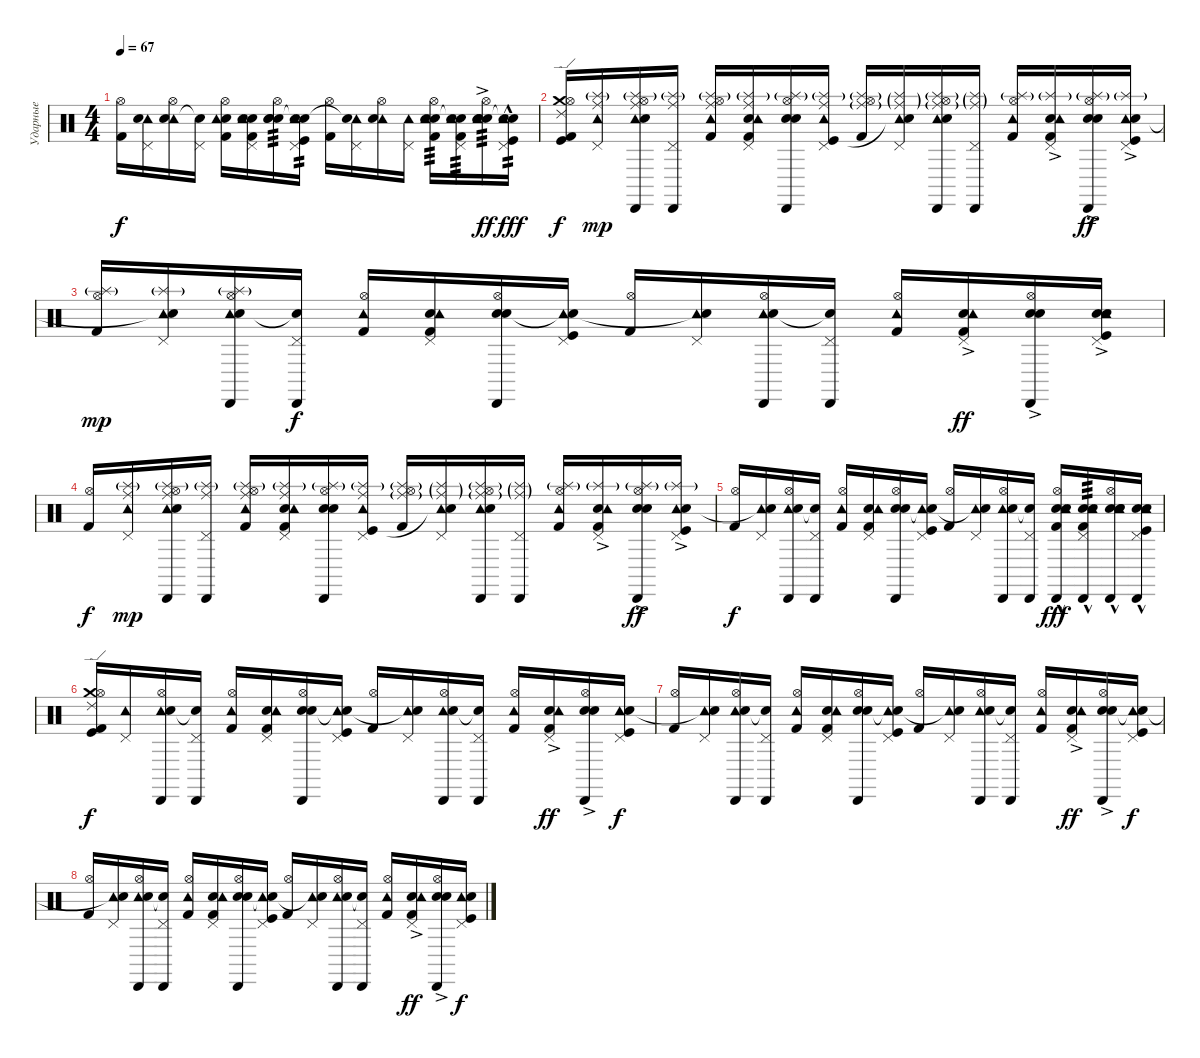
\track ("Ударные" "Ударные") {instrument percussion}
\staff {score}
\articulation defaults
\ts (4 4)
\tempo 67
\clef neutral
\ks c
("Hi-Hat (open)" "Kick (hit) 2").16{dy f} ("Pedal Hi-Hat (hit)" "Tambourine (hit)" "Snare (hit)"{t}).16 ("Hi-Hat (open)" "Tambourine (hit)" "Snare (hit) 2").16 ("Pedal Hi-Hat (hit)" "Snare (hit) 2"{t}).16 ("Hi-Hat (open)" "Snare (hit) 2" "Tambourine (hit)" "Kick (hit) 2").16 ("Pedal Hi-Hat (hit)" "Hand Clap (hit)" "Snare (hit) 2" "Tambourine (hit)" "Kick (hit) 2").16 ("Hi-Hat (open)" "Hand Clap (hit)" "Snare (hit) 2" "Snare (hit) 2").16{tp 3} ("Pedal Hi-Hat (hit)" "Snare (hit) 2" "Tambourine (hit)" "Snare (hit) 2"{t} "Kick (hit)").16{tp 2} ("Hi-Hat (open)" "Kick (hit) 2").16 ("Pedal Hi-Hat (hit)" "Tambourine (hit)" "Snare (hit)"{t}).16 ("Hi-Hat (open)" "Tambourine (hit)" "Snare (hit) 2").16 ("Pedal Hi-Hat (hit)" "Tambourine (hit)").16 ("Hi-Hat (open)" "Electric Snare (hit)" "Hand Clap (hit)" "Tambourine (hit)" "Kick (hit) 2").16{tp 3} ("Pedal Hi-Hat (hit)" "Electric Snare (hit)" "Snare (hit)"{t} "Tambourine (hit)" "Kick (hit) 2").16{tp 3} ("Hi-Hat (open)" "Electric Snare (hit)"{ac} "Hand Clap (hit)" "Snare (hit) 2" "Tambourine (hit)").16{tp 3 dy ff} ("Pedal Hi-Hat (hit)" "Electric Snare (hit)"{hac} "Snare (hit)"{t} "Tambourine (hit)" "Kick (hit)").16{tp 2 dy fff} |
("Crash medium (hit)" "Kick (hit) 2" "Kick (hit)" "Ride (edge) 2" "Hi-Hat (open)").16{dy f} ("Pedal Hi-Hat (hit)" "Tambourine (hit)" "Splash (hit)"{g} "Ride (middle)").16{dy mp} ("Hi-Hat (open)" "Cabasa (hit)" "Tambourine (hit)" "Splash (hit)"{g} "Snare (hit) 2" "Ride (middle)").16 ("Pedal Hi-Hat (hit)" "Cabasa (hit)" "Splash (hit)"{g} "Ride (middle)").16 ("Hi-Hat (open)" "Tambourine (hit)" "Splash (hit)"{g} "Ride (middle)" "Kick (hit) 2").16 ("Pedal Hi-Hat (hit)" "Ride (middle)" "Hand Clap (hit)" "Tambourine (hit)" "Splash (hit)"{g} "Kick (hit) 2").16 ("Hi-Hat (open)" "Cabasa (hit)" "Hand Clap (hit)" "Splash (hit)"{g} "Electric Snare (hit)").16 ("Pedal Hi-Hat (hit)" "Ride (middle)" "Tambourine (hit)" "Splash (hit)"{g} "Kick (hit)").16 ("Hi-Hat (open)" "Ride (middle)"{g} "Splash (hit)"{g} "Kick (hit) 2").16 ("Pedal Hi-Hat (hit)" "Ride (middle)"{g} "Tambourine (hit)" "Splash (hit)"{g} "Snare (hit)"{t}).16 ("Hi-Hat (open)" "Cabasa (hit)" "Splash (hit)"{g} "Tambourine (hit)" "Snare (hit) 2" "Ride (middle)"{g}).16 ("Pedal Hi-Hat (hit)" "Cabasa (hit)" "Splash (hit)"{g} "Ride (middle)"{g}).16 ("Hi-Hat (open)" "Tambourine (hit)" "Splash (hit)"{g} "Kick (hit) 2").16 ("Pedal Hi-Hat (hit)" "Hand Clap (hit)"{ac} "Tambourine (hit)" "Splash (hit)"{g} "Kick (hit) 2").16 ("Hi-Hat (open)" "Cabasa (hit)" "Hand Clap (hit)"{ac} "Splash (hit)"{g} "Electric Snare (hit)"{ac}).16{dy ff} ("Pedal Hi-Hat (hit)" "Splash (hit)"{g} "Tambourine (hit)" "Electric Snare (hit)"{ac} "Kick (hit)").16 |
("Hi-Hat (open)" "Splash (hit)"{g} "Kick (hit) 2").16{dy mp} ("Pedal Hi-Hat (hit)" "Tambourine (hit)" "Splash (hit)"{g} "Snare (hit)"{t}).16 ("Hi-Hat (open)" "Cabasa (hit)" "Tambourine (hit)" "Snare (hit) 2" "Splash (hit)"{g}).16 ("Pedal Hi-Hat (hit)" "Cabasa (hit)" "Snare (hit) 2"{t}).16{dy f} ("Hi-Hat (open)" "Tambourine (hit)" "Kick (hit) 2").16 ("Pedal Hi-Hat (hit)" "Hand Clap (hit)" "Tambourine (hit)" "Kick (hit) 2").16 ("Hi-Hat (open)" "Cabasa (hit)" "Hand Clap (hit)" "Electric Snare (hit)").16 ("Pedal Hi-Hat (hit)" "Tambourine (hit)" "Snare (hit) 2"{t} "Kick (hit)").16 ("Hi-Hat (open)" "Kick (hit) 2").16 ("Pedal Hi-Hat (hit)" "Tambourine (hit)" "Snare (hit)"{t}).16 ("Hi-Hat (open)" "Cabasa (hit)" "Tambourine (hit)" "Snare (hit) 2").16 ("Pedal Hi-Hat (hit)" "Cabasa (hit)" "Snare (hit) 2"{t}).16 ("Hi-Hat (open)" "Tambourine (hit)" "Kick (hit) 2").16 ("Pedal Hi-Hat (hit)" "Hand Clap (hit)"{ac} "Tambourine (hit)" "Kick (hit) 2").16{dy ff} ("Hi-Hat (open)" "Cabasa (hit)" "Hand Clap (hit)"{ac} "Electric Snare (hit)"{ac}).16 ("Pedal Hi-Hat (hit)" "Hand Clap (hit)"{ac} "Tambourine (hit)" "Electric Snare (hit)"{ac} "Kick (hit)").16 |
("Hi-Hat (open)" "Kick (hit) 2").16{dy f} ("Pedal Hi-Hat (hit)" "Tambourine (hit)" "Splash (hit)"{g} "Ride (middle)").16{dy mp} ("Hi-Hat (open)" "Cabasa (hit)" "Tambourine (hit)" "Splash (hit)"{g} "Snare (hit) 2" "Ride (middle)").16 ("Pedal Hi-Hat (hit)" "Cabasa (hit)" "Splash (hit)"{g} "Ride (middle)").16 ("Hi-Hat (open)" "Tambourine (hit)" "Splash (hit)"{g} "Ride (middle)" "Kick (hit) 2").16 ("Pedal Hi-Hat (hit)" "Ride (middle)" "Hand Clap (hit)" "Tambourine (hit)" "Splash (hit)"{g} "Kick (hit) 2").16 ("Hi-Hat (open)" "Cabasa (hit)" "Hand Clap (hit)" "Splash (hit)"{g} "Electric Snare (hit)").16 ("Pedal Hi-Hat (hit)" "Ride (middle)" "Tambourine (hit)" "Splash (hit)"{g} "Kick (hit)").16 ("Hi-Hat (open)" "Ride (middle)"{g} "Splash (hit)"{g} "Kick (hit) 2").16 ("Pedal Hi-Hat (hit)" "Ride (middle)"{g} "Tambourine (hit)" "Splash (hit)"{g} "Snare (hit)"{t}).16 ("Hi-Hat (open)" "Cabasa (hit)" "Splash (hit)"{g} "Tambourine (hit)" "Snare (hit) 2" "Ride (middle)"{g}).16 ("Pedal Hi-Hat (hit)" "Cabasa (hit)" "Splash (hit)"{g} "Ride (middle)"{g}).16 ("Hi-Hat (open)" "Tambourine (hit)" "Splash (hit)"{g} "Kick (hit) 2").16 ("Pedal Hi-Hat (hit)" "Hand Clap (hit)"{ac} "Tambourine (hit)" "Splash (hit)"{g} "Kick (hit) 2").16 ("Hi-Hat (open)" "Cabasa (hit)" "Hand Clap (hit)"{ac} "Splash (hit)"{g} "Electric Snare (hit)"{ac}).16{dy ff} ("Pedal Hi-Hat (hit)" "Splash (hit)"{g} "Tambourine (hit)" "Electric Snare (hit)"{ac} "Kick (hit)").16 |
("Hi-Hat (open)" "Kick (hit) 2").16{dy f} ("Pedal Hi-Hat (hit)" "Tambourine (hit)" "Snare (hit)"{t}).16 ("Hi-Hat (open)" "Cabasa (hit)" "Tambourine (hit)" "Snare (hit) 2").16 ("Pedal Hi-Hat (hit)" "Cabasa (hit)" "Snare (hit) 2"{t}).16 ("Hi-Hat (open)" "Tambourine (hit)" "Kick (hit) 2").16 ("Pedal Hi-Hat (hit)" "Hand Clap (hit)" "Tambourine (hit)" "Kick (hit) 2").16 ("Hi-Hat (open)" "Cabasa (hit)" "Hand Clap (hit)" "Electric Snare (hit)").16 ("Pedal Hi-Hat (hit)" "Tambourine (hit)" "Snare (hit) 2"{t} "Kick (hit)").16 ("Hi-Hat (open)" "Kick (hit) 2").16 ("Pedal Hi-Hat (hit)" "Tambourine (hit)" "Snare (hit)"{t}).16 ("Hi-Hat (open)" "Cabasa (hit)" "Tambourine (hit)" "Snare (hit) 2").16 ("Pedal Hi-Hat (hit)" "Cabasa (hit)" "Snare (hit) 2"{t}).16 ("Hi-Hat (open)" "Cabasa (hit)" "Snare (hit) 2" "Hand Clap (hit)" "Tambourine (hit)" "Kick (hit) 2"{hac}).16{dy fff} ("Pedal Hi-Hat (hit)" "Cabasa (hit)" "Snare (hit) 2" "Electric Snare (hit)"{hac} "Tambourine (hit)" "Kick (hit) 2").16{tp 3} ("Hi-Hat (open)" "Cabasa (hit)" "Snare (hit) 2" "Hand Clap (hit)" "Electric Snare (hit)"{hac} "Tambourine (hit)").16 ("Pedal Hi-Hat (hit)" "Cabasa (hit)" "Snare (hit) 2" "Electric Snare (hit)"{hac} "Tambourine (hit)" "Kick (hit)").16 |
("Crash medium (hit)" "Kick (hit) 2" "Kick (hit)" "Ride (edge) 2" "Hi-Hat (open)").16{dy f} ("Pedal Hi-Hat (hit)" "Tambourine (hit)").16 ("Hi-Hat (open)" "Cabasa (hit)" "Tambourine (hit)" "Snare (hit) 2").16 ("Pedal Hi-Hat (hit)" "Cabasa (hit)" "Snare (hit) 2"{t}).16 ("Hi-Hat (open)" "Tambourine (hit)" "Kick (hit) 2").16 ("Pedal Hi-Hat (hit)" "Hand Clap (hit)" "Tambourine (hit)" "Kick (hit) 2").16 ("Hi-Hat (open)" "Cabasa (hit)" "Hand Clap (hit)" "Electric Snare (hit)").16 ("Pedal Hi-Hat (hit)" "Tambourine (hit)" "Snare (hit) 2"{t} "Kick (hit)").16 ("Hi-Hat (open)" "Kick (hit) 2").16 ("Pedal Hi-Hat (hit)" "Tambourine (hit)" "Snare (hit)"{t}).16 ("Hi-Hat (open)" "Cabasa (hit)" "Tambourine (hit)" "Snare (hit) 2").16 ("Pedal Hi-Hat (hit)" "Cabasa (hit)" "Snare (hit) 2"{t}).16 ("Hi-Hat (open)" "Tambourine (hit)" "Kick (hit) 2").16 ("Pedal Hi-Hat (hit)" "Hand Clap (hit)"{ac} "Tambourine (hit)" "Kick (hit) 2").16{dy ff} ("Hi-Hat (open)" "Cabasa (hit)" "Hand Clap (hit)"{ac} "Electric Snare (hit)").16 ("Pedal Hi-Hat (hit)" "Tambourine (hit)" "Electric Snare (hit)" "Kick (hit)").16{dy f} |
("Hi-Hat (open)" "Kick (hit) 2").16 ("Pedal Hi-Hat (hit)" "Tambourine (hit)" "Snare (hit)"{t}).16 ("Hi-Hat (open)" "Cabasa (hit)" "Tambourine (hit)" "Snare (hit) 2").16 ("Pedal Hi-Hat (hit)" "Cabasa (hit)" "Snare (hit) 2"{t}).16 ("Hi-Hat (open)" "Tambourine (hit)" "Kick (hit) 2").16 ("Pedal Hi-Hat (hit)" "Hand Clap (hit)" "Tambourine (hit)" "Kick (hit) 2").16 ("Hi-Hat (open)" "Cabasa (hit)" "Hand Clap (hit)" "Electric Snare (hit)").16 ("Pedal Hi-Hat (hit)" "Tambourine (hit)" "Snare (hit) 2"{t} "Kick (hit)").16 ("Hi-Hat (open)" "Kick (hit) 2").16 ("Pedal Hi-Hat (hit)" "Tambourine (hit)" "Snare (hit)"{t}).16 ("Hi-Hat (open)" "Cabasa (hit)" "Tambourine (hit)" "Snare (hit) 2").16 ("Pedal Hi-Hat (hit)" "Cabasa (hit)" "Snare (hit) 2"{t}).16 ("Hi-Hat (open)" "Tambourine (hit)" "Kick (hit) 2").16 ("Pedal Hi-Hat (hit)" "Hand Clap (hit)"{ac} "Tambourine (hit)" "Kick (hit) 2").16{dy ff} ("Hi-Hat (open)" "Cabasa (hit)" "Hand Clap (hit)"{ac} "Electric Snare (hit)").16 ("Pedal Hi-Hat (hit)" "Tambourine (hit)" "Snare (hit) 2"{t} "Kick (hit)").16{dy f} |
("Hi-Hat (open)" "Kick (hit) 2").16 ("Pedal Hi-Hat (hit)" "Tambourine (hit)" "Snare (hit)"{t}).16 ("Hi-Hat (open)" "Cabasa (hit)" "Tambourine (hit)" "Snare (hit) 2").16 ("Pedal Hi-Hat (hit)" "Cabasa (hit)" "Snare (hit) 2"{t}).16 ("Hi-Hat (open)" "Tambourine (hit)" "Kick (hit) 2").16 ("Pedal Hi-Hat (hit)" "Hand Clap (hit)" "Tambourine (hit)" "Kick (hit) 2").16 ("Hi-Hat (open)" "Cabasa (hit)" "Hand Clap (hit)" "Electric Snare (hit)").16 ("Pedal Hi-Hat (hit)" "Tambourine (hit)" "Snare (hit) 2"{t} "Kick (hit)").16 ("Hi-Hat (open)" "Kick (hit) 2").16 ("Pedal Hi-Hat (hit)" "Tambourine (hit)" "Snare (hit)"{t}).16 ("Hi-Hat (open)" "Cabasa (hit)" "Tambourine (hit)" "Snare (hit) 2").16 ("Pedal Hi-Hat (hit)" "Cabasa (hit)" "Snare (hit) 2"{t}).16 ("Hi-Hat (open)" "Tambourine (hit)" "Kick (hit) 2").16 ("Pedal Hi-Hat (hit)" "Hand Clap (hit)"{ac} "Tambourine (hit)" "Kick (hit) 2").16{dy ff} ("Hi-Hat (open)" "Cabasa (hit)" "Hand Clap (hit)"{ac} "Electric Snare (hit)").16 ("Pedal Hi-Hat (hit)" "Tambourine (hit)" "Electric Snare (hit)" "Kick (hit)").16{dy f}
